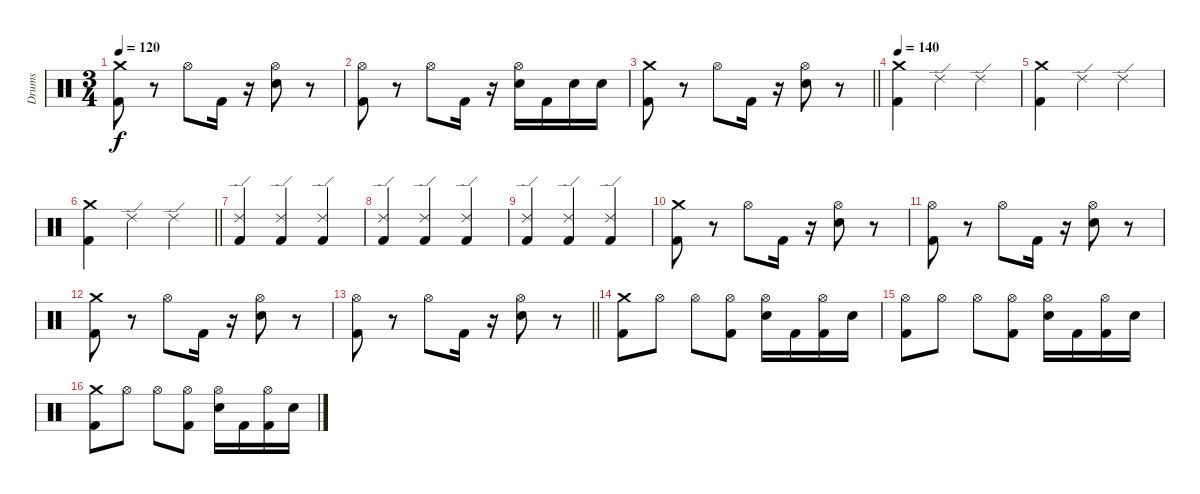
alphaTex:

\track ("Drums" "Drums") {instrument percussion}
\staff {score}
\articulation defaults
\ts (3 4)
\tempo 120
\clef neutral
\ks c
("Kick (hit) 2" "Crash medium (hit)").8{dy f} r.8 "Hi-Hat (open)".8 "Kick (hit) 2".16 r.16 ("Electric Snare (hit)" "Hi-Hat (open)").8 r.8 |
("Kick (hit) 2" "Hi-Hat (open)").8 r.8 "Hi-Hat (open)".8 "Kick (hit) 2".16 r.16 ("Electric Snare (hit)" "Hi-Hat (open)").16 "Kick (hit) 2".16 "Electric Snare (hit)".16 "Electric Snare (hit)".16 |
\barLineRight lightlight
("Kick (hit) 2" "Crash medium (hit)").8 r.8 "Hi-Hat (open)".8 "Kick (hit) 2".16 r.16 ("Electric Snare (hit)" "Hi-Hat (open)").8 r.8 |
\tempo 140
("Kick (hit) 2" "Crash medium (hit)").4 "Ride (edge) 2".4 "Ride (edge) 2".4 |
("Kick (hit) 2" "Crash medium (hit)").4 "Ride (edge) 2".4 "Ride (edge) 2".4 |
\barLineRight lightlight
("Kick (hit) 2" "Crash medium (hit)").4 "Ride (edge) 2".4 "Ride (edge) 2".4 |
("Kick (hit) 2" "Ride (edge) 2").4 ("Kick (hit) 2" "Ride (edge) 2").4 ("Kick (hit) 2" "Ride (edge) 2").4 |
("Kick (hit) 2" "Ride (edge) 2").4 ("Kick (hit) 2" "Ride (edge) 2").4 ("Kick (hit) 2" "Ride (edge) 2").4 |
("Kick (hit) 2" "Ride (edge) 2").4 ("Kick (hit) 2" "Ride (edge) 2").4 ("Kick (hit) 2" "Ride (edge) 2").4 |
("Kick (hit) 2" "Crash medium (hit)").8 r.8 "Hi-Hat (open)".8 "Kick (hit) 2".16 r.16 ("Electric Snare (hit)" "Hi-Hat (open)").8 r.8 |
("Kick (hit) 2" "Hi-Hat (open)").8 r.8 "Hi-Hat (open)".8 "Kick (hit) 2".16 r.16 ("Electric Snare (hit)" "Hi-Hat (open)").8 r.8 |
("Kick (hit) 2" "Crash medium (hit)").8 r.8 "Hi-Hat (open)".8 "Kick (hit) 2".16 r.16 ("Electric Snare (hit)" "Hi-Hat (open)").8 r.8 |
\barLineRight lightlight
("Kick (hit) 2" "Hi-Hat (open)").8 r.8 "Hi-Hat (open)".8 "Kick (hit) 2".16 r.16 ("Electric Snare (hit)" "Hi-Hat (open)").8 r.8 |
("Kick (hit) 2" "Crash medium (hit)").8 "Hi-Hat (open)".8 "Hi-Hat (open)".8 ("Kick (hit) 2" "Hi-Hat (open)").8 ("Electric Snare (hit)" "Hi-Hat (open)").16 "Kick (hit) 2".16 ("Kick (hit) 2" "Hi-Hat (open)").16 "Electric Snare (hit)".16 |
("Kick (hit) 2" "Hi-Hat (open)").8 "Hi-Hat (open)".8 "Hi-Hat (open)".8 ("Kick (hit) 2" "Hi-Hat (open)").8 ("Electric Snare (hit)" "Hi-Hat (open)").16 "Kick (hit) 2".16 ("Kick (hit) 2" "Hi-Hat (open)").16 "Electric Snare (hit)".16 |
("Kick (hit) 2" "Crash medium (hit)").8 "Hi-Hat (open)".8 "Hi-Hat (open)".8 ("Kick (hit) 2" "Hi-Hat (open)").8 ("Electric Snare (hit)" "Hi-Hat (open)").16 "Kick (hit) 2".16 ("Kick (hit) 2" "Hi-Hat (open)").16 "Electric Snare (hit)".16
